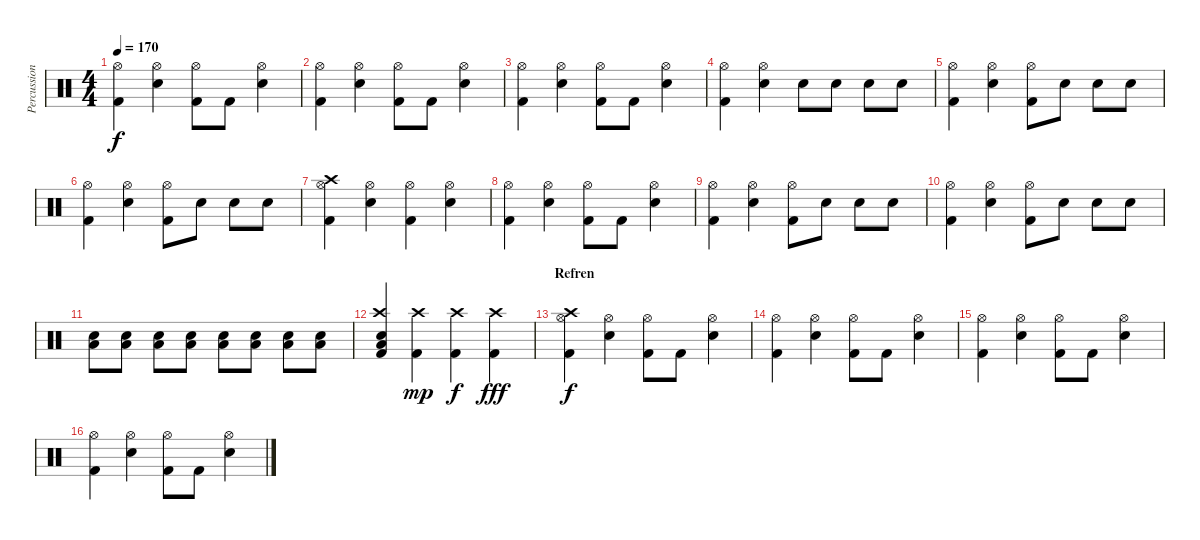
\track ("Percussion - Who the fuck knows" "Percussion") {instrument percussion}
\staff {score}
\articulation defaults
\ts (4 4)
\tempo 170
\clef neutral
\ks c
("Hi-Hat (open)" "Kick (hit) 2").4{dy f} ("Hi-Hat (open)" "Snare (hit) 2").4 ("Hi-Hat (open)" "Kick (hit) 2").8 "Kick (hit) 2".8 ("Hi-Hat (open)" "Snare (hit) 2").4 |
("Hi-Hat (open)" "Kick (hit) 2").4 ("Hi-Hat (open)" "Snare (hit) 2").4 ("Hi-Hat (open)" "Kick (hit) 2").8 "Kick (hit) 2".8 ("Hi-Hat (open)" "Snare (hit) 2").4 |
("Hi-Hat (open)" "Kick (hit) 2").4 ("Hi-Hat (open)" "Snare (hit) 2").4 ("Hi-Hat (open)" "Kick (hit) 2").8 "Kick (hit) 2".8 ("Hi-Hat (open)" "Snare (hit) 2").4 |
("Hi-Hat (open)" "Kick (hit) 2").4 ("Hi-Hat (open)" "Snare (hit) 2").4 "Snare (hit) 2".8 "Snare (hit) 2".8 "Snare (hit) 2".8 "Snare (hit) 2".8 |
("Hi-Hat (open)" "Kick (hit) 2").4 ("Hi-Hat (open)" "Snare (hit) 2").4 ("Hi-Hat (open)" "Kick (hit) 2").8 "Snare (hit) 2".8 "Snare (hit) 2".8 "Snare (hit) 2".8 |
("Hi-Hat (open)" "Kick (hit) 2").4 ("Hi-Hat (open)" "Snare (hit) 2").4 ("Hi-Hat (open)" "Kick (hit) 2").8 "Snare (hit) 2".8 "Snare (hit) 2".8 "Snare (hit) 2".8 |
("Hi-Hat (open)" "Kick (hit) 2" "Crash high (hit)").4 ("Hi-Hat (open)" "Snare (hit) 2").4 ("Hi-Hat (open)" "Kick (hit) 2").4 ("Hi-Hat (open)" "Snare (hit) 2").4 |
("Hi-Hat (open)" "Kick (hit) 2").4 ("Hi-Hat (open)" "Snare (hit) 2").4 ("Hi-Hat (open)" "Kick (hit) 2").8 "Kick (hit) 2".8 ("Hi-Hat (open)" "Snare (hit) 2").4 |
("Hi-Hat (open)" "Kick (hit) 2").4 ("Hi-Hat (open)" "Snare (hit) 2").4 ("Hi-Hat (open)" "Kick (hit) 2").8 "Snare (hit) 2".8 "Snare (hit) 2".8 "Snare (hit) 2".8 |
("Hi-Hat (open)" "Kick (hit) 2").4 ("Hi-Hat (open)" "Snare (hit) 2").4 ("Hi-Hat (open)" "Kick (hit) 2").8 "Snare (hit) 2".8 "Snare (hit) 2".8 "Snare (hit) 2".8 |
("Low Tom (hit)" "Snare (hit) 2").8 ("Low Tom (hit)" "Snare (hit) 2").8 ("Low Tom (hit)" "Snare (hit) 2").8 ("Low Tom (hit)" "Snare (hit) 2").8 ("Low Tom (hit)" "Snare (hit) 2").8 ("Low Tom (hit)" "Snare (hit) 2").8 ("Low Tom (hit)" "Snare (hit) 2").8 ("Low Tom (hit)" "Snare (hit) 2").8 |
("Low Tom (hit)" "Snare (hit) 2" "Kick (hit) 2" "Crash high (hit)").4 ("Crash high (hit)" "Kick (hit) 2").4{dy mp} ("Crash high (hit)" "Kick (hit) 2").4{dy f} ("Crash high (hit)" "Kick (hit) 2").4{dy fff} |
\section ("" "Refren")
("Crash high (hit)" "Kick (hit) 2" "Hi-Hat (open)").4{dy f} ("Hi-Hat (open)" "Snare (hit) 2").4 ("Hi-Hat (open)" "Kick (hit) 2").8 "Kick (hit) 2".8 ("Hi-Hat (open)" "Snare (hit) 2").4 |
("Hi-Hat (open)" "Kick (hit) 2").4 ("Hi-Hat (open)" "Snare (hit) 2").4 ("Hi-Hat (open)" "Kick (hit) 2").8 "Kick (hit) 2".8 ("Hi-Hat (open)" "Snare (hit) 2").4 |
("Hi-Hat (open)" "Kick (hit) 2").4 ("Hi-Hat (open)" "Snare (hit) 2").4 ("Hi-Hat (open)" "Kick (hit) 2").8 "Kick (hit) 2".8 ("Hi-Hat (open)" "Snare (hit) 2").4 |
("Hi-Hat (open)" "Kick (hit) 2").4 ("Hi-Hat (open)" "Snare (hit) 2").4 ("Hi-Hat (open)" "Kick (hit) 2").8 "Kick (hit) 2".8 ("Hi-Hat (open)" "Snare (hit) 2").4
